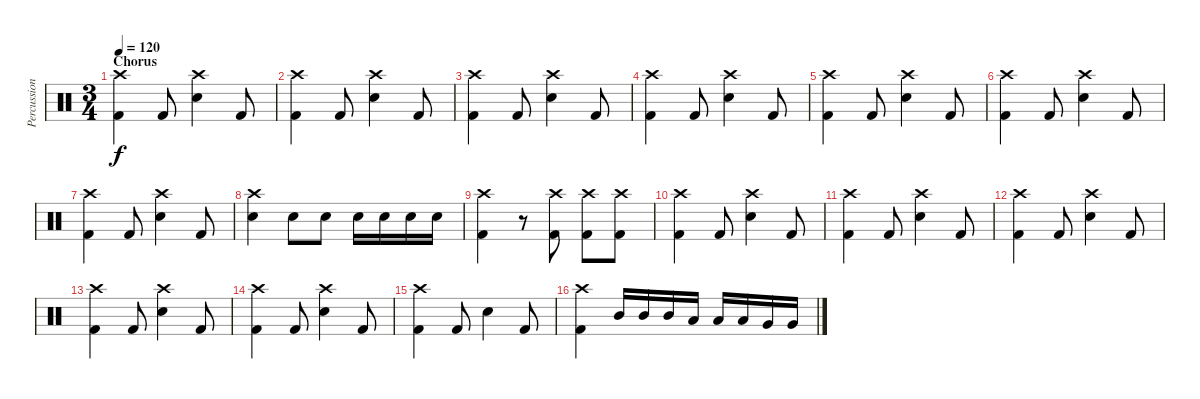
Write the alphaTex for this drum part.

\track ("Percussion" "Percussion") {instrument percussion}
\staff {score}
\articulation defaults
\ts (3 4)
\section ("" "Chorus")
\tempo 120
\clef neutral
\ks c
("Crash high (hit)" "Kick (hit) 2").4{dy f} "Kick (hit) 2".8 ("Crash high (hit)" "Snare (hit) 2").4 "Kick (hit) 2".8 |
("Crash high (hit)" "Kick (hit) 2").4 "Kick (hit) 2".8 ("Crash high (hit)" "Snare (hit) 2").4 "Kick (hit) 2".8 |
("Crash high (hit)" "Kick (hit) 2").4 "Kick (hit) 2".8 ("Crash high (hit)" "Snare (hit) 2").4 "Kick (hit) 2".8 |
("Crash high (hit)" "Kick (hit) 2").4 "Kick (hit) 2".8 ("Crash high (hit)" "Snare (hit) 2").4 "Kick (hit) 2".8 |
("Crash high (hit)" "Kick (hit) 2").4 "Kick (hit) 2".8 ("Crash high (hit)" "Snare (hit) 2").4 "Kick (hit) 2".8 |
("Crash high (hit)" "Kick (hit) 2").4 "Kick (hit) 2".8 ("Crash high (hit)" "Snare (hit) 2").4 "Kick (hit) 2".8 |
("Crash high (hit)" "Kick (hit) 2").4 "Kick (hit) 2".8 ("Crash high (hit)" "Snare (hit) 2").4 "Kick (hit) 2".8 |
("Crash high (hit)" "Snare (hit) 2").4 "Snare (hit) 2".8 "Snare (hit) 2".8 "Snare (hit) 2".16 "Snare (hit) 2".16 "Snare (hit) 2".16 "Snare (hit) 2".16 |
("Crash high (hit)" "Kick (hit) 2").4 r.8 ("Crash high (hit)" "Kick (hit) 2").8 ("Crash high (hit)" "Kick (hit) 2").8 ("Crash high (hit)" "Kick (hit) 2").8 |
("Crash high (hit)" "Kick (hit) 2").4 "Kick (hit) 2".8 ("Crash high (hit)" "Snare (hit) 2").4 "Kick (hit) 2".8 |
("Crash high (hit)" "Kick (hit) 2").4 "Kick (hit) 2".8 ("Crash high (hit)" "Snare (hit) 2").4 "Kick (hit) 2".8 |
("Crash high (hit)" "Kick (hit) 2").4 "Kick (hit) 2".8 ("Crash high (hit)" "Snare (hit) 2").4 "Kick (hit) 2".8 |
("Crash high (hit)" "Kick (hit) 2").4 "Kick (hit) 2".8 ("Crash high (hit)" "Snare (hit) 2").4 "Kick (hit) 2".8 |
("Crash high (hit)" "Kick (hit) 2").4 "Kick (hit) 2".8 ("Crash high (hit)" "Snare (hit) 2").4 "Kick (hit) 2".8 |
("Crash high (hit)" "Kick (hit) 2").4 "Kick (hit) 2".8 "Snare (hit) 2".4 "Kick (hit) 2".8 |
("Crash high (hit)" "Kick (hit) 2").4 "Mid Tom (hit)".16 "Mid Tom (hit)".16 "Mid Tom (hit)".16 "Low Tom (hit)".16 "Low Tom (hit)".16 "Low Tom (hit)".16 "Very Low Tom (hit)".16 "Very Low Tom (hit)".16
